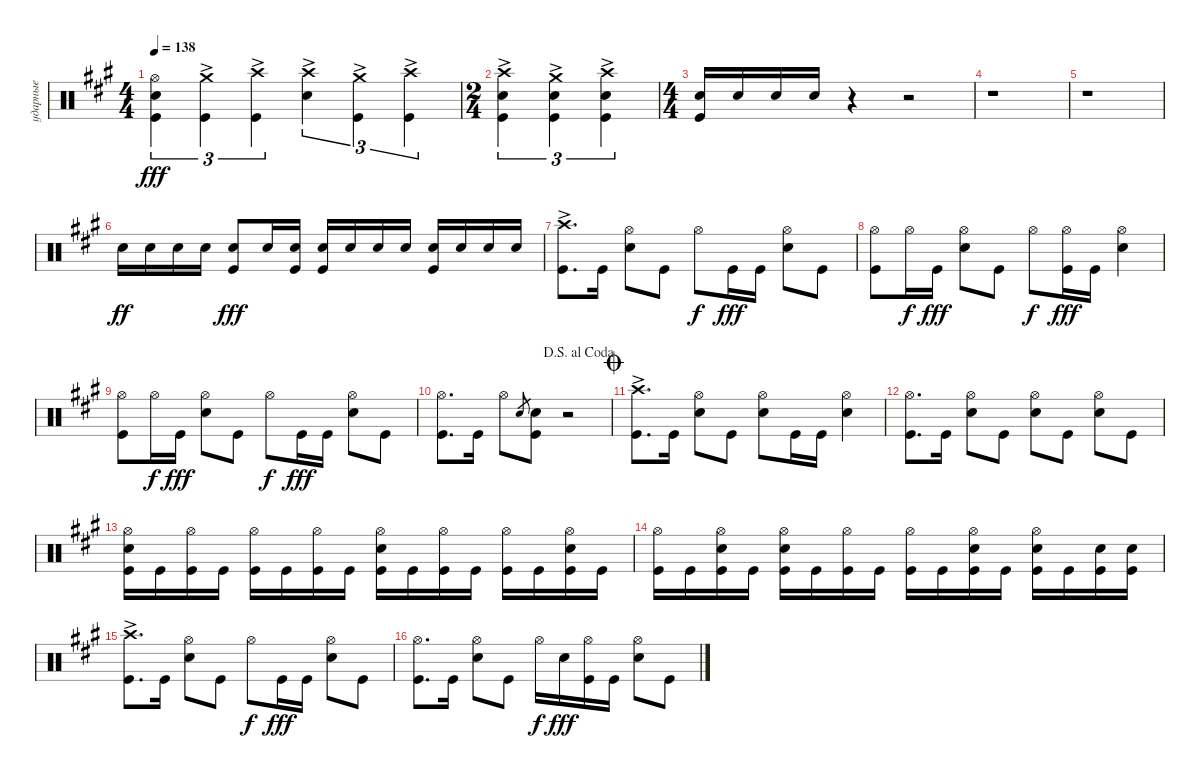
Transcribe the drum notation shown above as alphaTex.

\track ("ударные" "ударные") {instrument percussion}
\staff {score}
\articulation defaults
\ts (4 4)
\tempo 138
\clef neutral
\ks f#minor
("Kick (hit)" "Snare (hit) 2" "Hi-Hat (open)").4{tu (3 2) dy fff} ("Kick (hit)" "Crash medium (hit)"{ac}).4{tu (3 2)} ("Kick (hit)" "Crash high (hit)"{ac}).4{tu (3 2)} ("Snare (hit) 2" "Crash high (hit)"{ac}).4{tu (3 2)} ("Kick (hit)" "Crash medium (hit)"{ac}).4{tu (3 2)} ("Kick (hit)" "Crash high (hit)"{ac}).4{tu (3 2)} |
\ts (2 4)
("Snare (hit) 2" "Crash high (hit)"{ac} "Kick (hit)").4{tu (3 2)} ("Kick (hit)" "Crash medium (hit)"{ac} "Snare (hit) 2").4{tu (3 2)} ("Kick (hit)" "Crash high (hit)"{ac} "Snare (hit) 2").4{tu (3 2)} |
\ts (4 4)
("Kick (hit)" "Snare (hit) 2").16 "Snare (hit) 2".16 "Snare (hit) 2".16 "Snare (hit) 2".16 r.4 r.2 |
r.1 |
r.1 |
"Snare (hit) 2".16{dy ff} "Snare (hit) 2".16 "Snare (hit) 2".16 "Snare (hit) 2".16 ("Snare (hit) 2" "Kick (hit)").8{dy fff} "Snare (hit) 2".16 ("Snare (hit) 2" "Kick (hit)").16 ("Snare (hit) 2" "Kick (hit)").16 "Snare (hit) 2".16 "Snare (hit) 2".16 "Snare (hit) 2".16 ("Snare (hit) 2" "Kick (hit)").16 "Snare (hit) 2".16 "Snare (hit) 2".16 "Snare (hit) 2".16 |
("Kick (hit)" "Crash high (hit)"{ac}).8{d} "Kick (hit)".16 ("Snare (hit) 2" "Hi-Hat (open)").8 "Kick (hit)".8 "Hi-Hat (open)".8{dy f} "Kick (hit)".16{dy fff} "Kick (hit)".16 ("Snare (hit) 2" "Hi-Hat (open)").8 "Kick (hit)".8 |
("Kick (hit)" "Hi-Hat (open)").8 "Hi-Hat (open)".16{dy f} "Kick (hit)".16{dy fff} ("Snare (hit) 2" "Hi-Hat (open)").8 "Kick (hit)".8 "Hi-Hat (open)".8{dy f} ("Kick (hit)" "Hi-Hat (open)").16{dy fff} "Kick (hit)".16 ("Snare (hit) 2" "Hi-Hat (open)").4 |
("Kick (hit)" "Hi-Hat (open)").8 "Hi-Hat (open)".16{dy f} "Kick (hit)".16{dy fff} ("Snare (hit) 2" "Hi-Hat (open)").8 "Kick (hit)".8 "Hi-Hat (open)".8{dy f} "Kick (hit)".16{dy fff} "Kick (hit)".16 ("Snare (hit) 2" "Hi-Hat (open)").8 "Kick (hit)".8 |
\jump dalsegnoalcoda
("Kick (hit)" "Hi-Hat (open)").8{d} "Kick (hit)".16 "Hi-Hat (open)".8 "Snare (hit) 2".8{gr} ("Snare (hit) 2" "Kick (hit)").8 r.2 |
\jump coda
("Kick (hit)" "Crash high (hit)"{ac}).8{d} "Kick (hit)".16 ("Snare (hit) 2" "Hi-Hat (open)").8 "Kick (hit)".8 ("Hi-Hat (open)" "Snare (hit) 2").8 "Kick (hit)".16 "Kick (hit)".16 ("Snare (hit) 2" "Hi-Hat (open)").4 |
("Kick (hit)" "Hi-Hat (open)").8{d} "Kick (hit)".16 ("Snare (hit) 2" "Hi-Hat (open)").8 "Kick (hit)".8 ("Hi-Hat (open)" "Snare (hit) 2").8 "Kick (hit)".8 ("Snare (hit) 2" "Hi-Hat (open)").8 "Kick (hit)".8 |
("Snare (hit) 2" "Kick (hit)" "Hi-Hat (open)").16 "Kick (hit)".16 ("Kick (hit)" "Hi-Hat (open)").16 "Kick (hit)".16 ("Kick (hit)" "Hi-Hat (open)").16 "Kick (hit)".16 ("Kick (hit)" "Hi-Hat (open)").16 "Kick (hit)".16 ("Kick (hit)" "Snare (hit) 2" "Hi-Hat (open)").16 "Kick (hit)".16 ("Kick (hit)" "Hi-Hat (open)").16 "Kick (hit)".16 ("Kick (hit)" "Hi-Hat (open)").16 "Kick (hit)".16 ("Kick (hit)" "Snare (hit) 2" "Hi-Hat (open)").16 "Kick (hit)".16 |
("Kick (hit)" "Hi-Hat (open)").16 "Kick (hit)".16 ("Kick (hit)" "Snare (hit) 2" "Hi-Hat (open)").16 "Kick (hit)".16 ("Kick (hit)" "Snare (hit) 2" "Hi-Hat (open)").16 "Kick (hit)".16 ("Kick (hit)" "Hi-Hat (open)").16 "Kick (hit)".16 ("Kick (hit)" "Hi-Hat (open)").16 "Kick (hit)".16 ("Kick (hit)" "Snare (hit) 2" "Hi-Hat (open)").16 "Kick (hit)".16 ("Kick (hit)" "Snare (hit) 2" "Hi-Hat (open)").16 "Kick (hit)".16 ("Kick (hit)" "Snare (hit) 2").16 ("Kick (hit)" "Snare (hit) 2").16 |
("Kick (hit)" "Crash high (hit)"{ac}).8{d} "Kick (hit)".16 ("Snare (hit) 2" "Hi-Hat (open)").8 "Kick (hit)".8 "Hi-Hat (open)".8{dy f} "Kick (hit)".16{dy fff} "Kick (hit)".16 ("Snare (hit) 2" "Hi-Hat (open)").8 "Kick (hit)".8 |
("Kick (hit)" "Hi-Hat (open)").8{d} "Kick (hit)".16 ("Snare (hit) 2" "Hi-Hat (open)").8 "Kick (hit)".8 "Hi-Hat (open)".16{dy f} "Snare (hit) 2".16{dy fff} ("Hi-Hat (open)" "Kick (hit)").16 "Kick (hit)".16 ("Snare (hit) 2" "Hi-Hat (open)").8 "Kick (hit)".8
